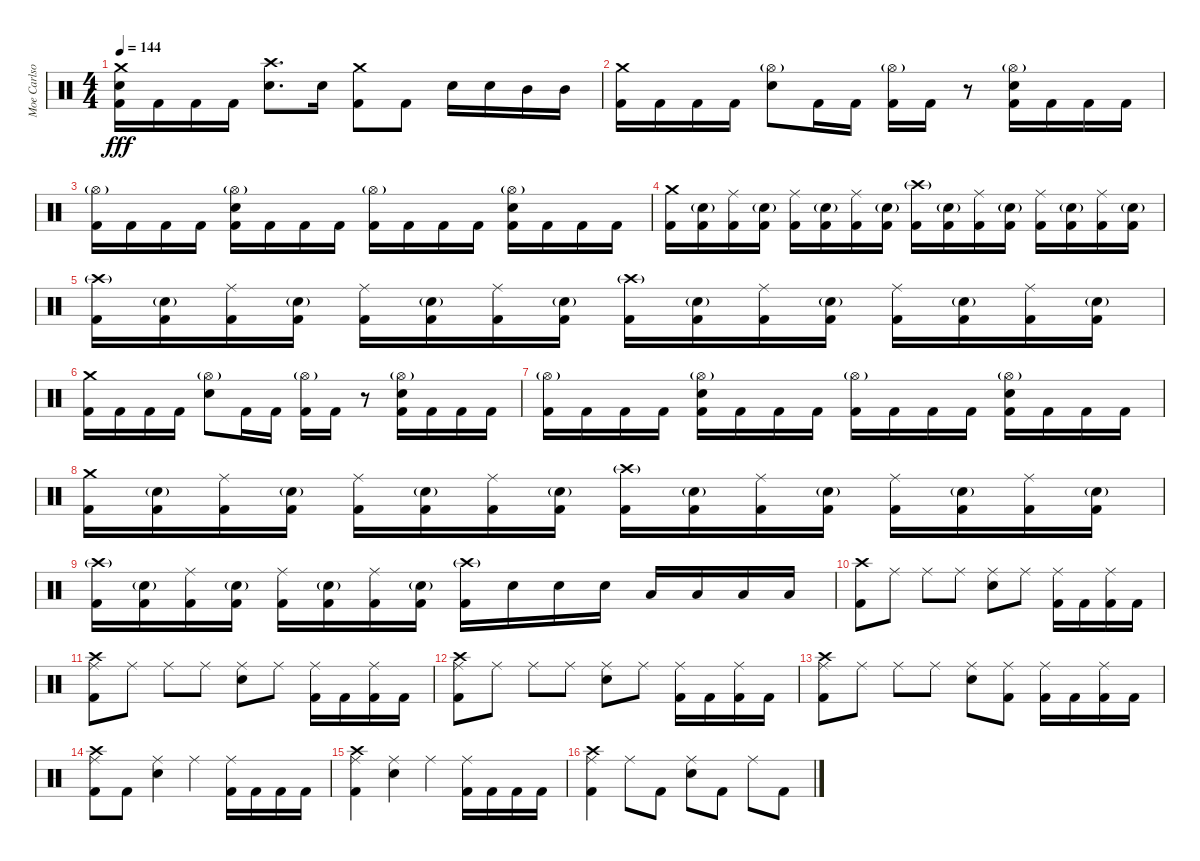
\track ("Moe Carlson" "Moe Carlso") {solo instrument percussion}
\staff {score}
\articulation defaults
\ts (4 4)
\tempo 144
\clef neutral
\ks c
("Crash medium (hit)" "Electric Snare (hit)" "Kick (hit) 2").16{dy fff} "Kick (hit) 2".16 "Kick (hit) 2".16 "Kick (hit) 2".16 ("Crash high (hit)" "Electric Snare (hit)").8{d} "Electric Snare (hit)".16 ("Crash medium (hit)" "Kick (hit) 2").8 "Kick (hit) 2".8 "Electric Snare (hit)".16 "Electric Snare (hit)".16 "Mid Tom (hit)".16 "Mid Tom (hit)".16 |
("Crash medium (hit)" "Kick (hit) 2").16 "Kick (hit) 2".16 "Kick (hit) 2".16 "Kick (hit) 2".16 ("Hi-Hat (open)"{g} "Electric Snare (hit)").8 "Kick (hit) 2".16 "Kick (hit) 2".16 ("Hi-Hat (open)"{g} "Kick (hit) 2").16 "Kick (hit) 2".16 r.8 ("Hi-Hat (open)"{g} "Electric Snare (hit)" "Kick (hit) 2").16 "Kick (hit) 2".16 "Kick (hit) 2".16 "Kick (hit) 2".16 |
("Hi-Hat (open)"{g} "Kick (hit) 2").16 "Kick (hit) 2".16 "Kick (hit) 2".16 "Kick (hit) 2".16 ("Hi-Hat (open)"{g} "Electric Snare (hit)" "Kick (hit) 2").16 "Kick (hit) 2".16 "Kick (hit) 2".16 "Kick (hit) 2".16 ("Hi-Hat (open)"{g} "Kick (hit) 2").16 "Kick (hit) 2".16 "Kick (hit) 2".16 "Kick (hit) 2".16 ("Hi-Hat (open)"{g} "Electric Snare (hit)" "Kick (hit) 2").16 "Kick (hit) 2".16 "Kick (hit) 2".16 "Kick (hit) 2".16 |
("Crash medium (hit)" "Kick (hit) 2").16 ("Electric Snare (hit)"{g} "Kick (hit) 2").16 ("Ride (middle)" "Kick (hit) 2").16 ("Electric Snare (hit)"{g} "Kick (hit) 2").16 ("Ride (middle)" "Kick (hit) 2").16 ("Electric Snare (hit)"{g} "Kick (hit) 2").16 ("Ride (middle)" "Kick (hit) 2").16 ("Electric Snare (hit)"{g} "Kick (hit) 2").16 ("Crash high (hit)"{g} "Kick (hit) 2").16 ("Electric Snare (hit)"{g} "Kick (hit) 2").16 ("Ride (middle)" "Kick (hit) 2").16 ("Electric Snare (hit)"{g} "Kick (hit) 2").16 ("Ride (middle)" "Kick (hit) 2").16 ("Electric Snare (hit)"{g} "Kick (hit) 2").16 ("Ride (middle)" "Kick (hit) 2").16 ("Electric Snare (hit)"{g} "Kick (hit) 2").16 |
("Crash high (hit)"{g} "Kick (hit) 2").16 ("Electric Snare (hit)"{g} "Kick (hit) 2").16 ("Ride (middle)" "Kick (hit) 2").16 ("Electric Snare (hit)"{g} "Kick (hit) 2").16 ("Ride (middle)" "Kick (hit) 2").16 ("Electric Snare (hit)"{g} "Kick (hit) 2").16 ("Ride (middle)" "Kick (hit) 2").16 ("Electric Snare (hit)"{g} "Kick (hit) 2").16 ("Crash high (hit)"{g} "Kick (hit) 2").16 ("Electric Snare (hit)"{g} "Kick (hit) 2").16 ("Ride (middle)" "Kick (hit) 2").16 ("Electric Snare (hit)"{g} "Kick (hit) 2").16 ("Ride (middle)" "Kick (hit) 2").16 ("Electric Snare (hit)"{g} "Kick (hit) 2").16 ("Ride (middle)" "Kick (hit) 2").16 ("Electric Snare (hit)"{g} "Kick (hit) 2").16 |
("Crash medium (hit)" "Kick (hit) 2").16 "Kick (hit) 2".16 "Kick (hit) 2".16 "Kick (hit) 2".16 ("Hi-Hat (open)"{g} "Electric Snare (hit)").8 "Kick (hit) 2".16 "Kick (hit) 2".16 ("Hi-Hat (open)"{g} "Kick (hit) 2").16 "Kick (hit) 2".16 r.8 ("Hi-Hat (open)"{g} "Electric Snare (hit)" "Kick (hit) 2").16 "Kick (hit) 2".16 "Kick (hit) 2".16 "Kick (hit) 2".16 |
("Hi-Hat (open)"{g} "Kick (hit) 2").16 "Kick (hit) 2".16 "Kick (hit) 2".16 "Kick (hit) 2".16 ("Hi-Hat (open)"{g} "Electric Snare (hit)" "Kick (hit) 2").16 "Kick (hit) 2".16 "Kick (hit) 2".16 "Kick (hit) 2".16 ("Hi-Hat (open)"{g} "Kick (hit) 2").16 "Kick (hit) 2".16 "Kick (hit) 2".16 "Kick (hit) 2".16 ("Hi-Hat (open)"{g} "Electric Snare (hit)" "Kick (hit) 2").16 "Kick (hit) 2".16 "Kick (hit) 2".16 "Kick (hit) 2".16 |
("Crash medium (hit)" "Kick (hit) 2").16 ("Electric Snare (hit)"{g} "Kick (hit) 2").16 ("Ride (middle)" "Kick (hit) 2").16 ("Electric Snare (hit)"{g} "Kick (hit) 2").16 ("Ride (middle)" "Kick (hit) 2").16 ("Electric Snare (hit)"{g} "Kick (hit) 2").16 ("Ride (middle)" "Kick (hit) 2").16 ("Electric Snare (hit)"{g} "Kick (hit) 2").16 ("Crash high (hit)"{g} "Kick (hit) 2").16 ("Electric Snare (hit)"{g} "Kick (hit) 2").16 ("Ride (middle)" "Kick (hit) 2").16 ("Electric Snare (hit)"{g} "Kick (hit) 2").16 ("Ride (middle)" "Kick (hit) 2").16 ("Electric Snare (hit)"{g} "Kick (hit) 2").16 ("Ride (middle)" "Kick (hit) 2").16 ("Electric Snare (hit)"{g} "Kick (hit) 2").16 |
("Crash high (hit)"{g} "Kick (hit) 2").16 ("Electric Snare (hit)"{g} "Kick (hit) 2").16 ("Ride (middle)" "Kick (hit) 2").16 ("Electric Snare (hit)"{g} "Kick (hit) 2").16 ("Ride (middle)" "Kick (hit) 2").16 ("Electric Snare (hit)"{g} "Kick (hit) 2").16 ("Ride (middle)" "Kick (hit) 2").16 ("Electric Snare (hit)"{g} "Kick (hit) 2").16 ("Crash high (hit)"{g} "Kick (hit) 2").16 "Electric Snare (hit)".16 "Electric Snare (hit)".16 "Electric Snare (hit)".16 "Low Tom (hit)".16 "Low Tom (hit)".16 "Low Tom (hit)".16 "Low Tom (hit)".16 |
("Crash high (hit)" "Kick (hit) 2").8 "Ride (middle)".8 "Ride (middle)".8 "Ride (middle)".8 ("Ride (middle)" "Electric Snare (hit)").8 "Ride (middle)".8 ("Ride (middle)" "Kick (hit) 2").16 "Kick (hit) 2".16 ("Ride (middle)" "Kick (hit) 2").16 "Kick (hit) 2".16 |
("Crash high (hit)" "Ride (middle)" "Kick (hit) 2").8 "Ride (middle)".8 "Ride (middle)".8 "Ride (middle)".8 ("Ride (middle)" "Electric Snare (hit)").8 "Ride (middle)".8 ("Ride (middle)" "Kick (hit) 2").16 "Kick (hit) 2".16 ("Ride (middle)" "Kick (hit) 2").16 "Kick (hit) 2".16 |
("Crash high (hit)" "Ride (middle)" "Kick (hit) 2").8 "Ride (middle)".8 "Ride (middle)".8 "Ride (middle)".8 ("Ride (middle)" "Electric Snare (hit)").8 "Ride (middle)".8 ("Ride (middle)" "Kick (hit) 2").16 "Kick (hit) 2".16 ("Ride (middle)" "Kick (hit) 2").16 "Kick (hit) 2".16 |
("Crash high (hit)" "Ride (middle)" "Kick (hit) 2").8 "Ride (middle)".8 "Ride (middle)".8 "Ride (middle)".8 ("Ride (middle)" "Electric Snare (hit)").8 ("Ride (middle)" "Kick (hit) 2").8 ("Ride (middle)" "Kick (hit) 2").16 "Kick (hit) 2".16 ("Ride (middle)" "Kick (hit) 2").16 "Kick (hit) 2".16 |
("Crash high (hit)" "Ride (middle)" "Kick (hit) 2").8 "Kick (hit) 2".8 ("Ride (middle)" "Electric Snare (hit)").4 "Ride (middle)".4 ("Ride (middle)" "Kick (hit) 2").16 "Kick (hit) 2".16 "Kick (hit) 2".16 "Kick (hit) 2".16 |
("Crash high (hit)" "Ride (middle)" "Kick (hit) 2").4 ("Ride (middle)" "Electric Snare (hit)").4 "Ride (middle)".4 ("Ride (middle)" "Kick (hit) 2").16 "Kick (hit) 2".16 "Kick (hit) 2".16 "Kick (hit) 2".16 |
("Crash high (hit)" "Ride (middle)" "Kick (hit) 2").4 "Ride (middle)".8 "Kick (hit) 2".8 ("Ride (middle)" "Electric Snare (hit)").8 "Kick (hit) 2".8 "Ride (middle)".8 "Kick (hit) 2".8
